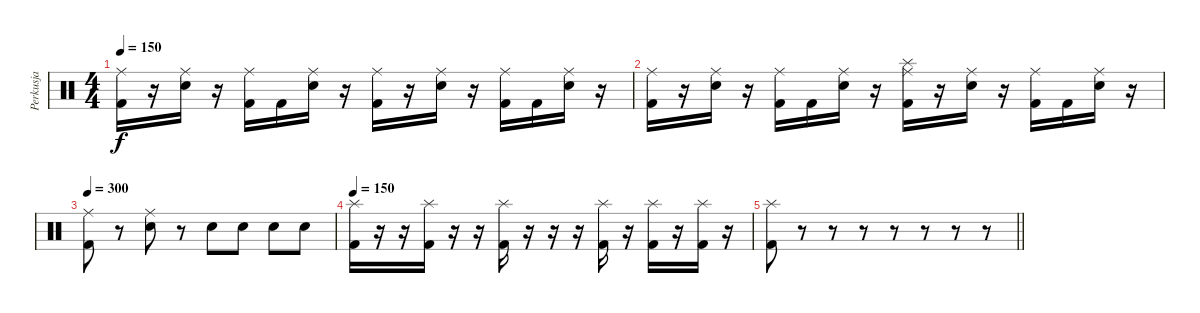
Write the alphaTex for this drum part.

\track ("Perkusja" "Perkusja") {instrument percussion}
\staff {score}
\articulation defaults
\ts (4 4)
\tempo 150
\clef neutral
\ks c
("Ride (middle)" "Kick (hit) 2").16{dy f} r.16 ("Ride (middle)" "Electric Snare (hit)").16 r.16 ("Ride (middle)" "Kick (hit) 2").16 "Kick (hit) 2".16 ("Ride (middle)" "Electric Snare (hit)").16 r.16 ("Ride (middle)" "Kick (hit) 2").16 r.16 ("Ride (middle)" "Electric Snare (hit)").16 r.16 ("Ride (middle)" "Kick (hit) 2").16 "Kick (hit) 2".16 ("Ride (middle)" "Electric Snare (hit)").16 r.16 |
("Ride (middle)" "Kick (hit) 2").16 r.16 ("Ride (middle)" "Electric Snare (hit)").16 r.16 ("Ride (middle)" "Kick (hit) 2").16 "Kick (hit) 2".16 ("Ride (middle)" "Electric Snare (hit)").16 r.16 ("Splash (hit)" "Ride (middle)" "Kick (hit) 2").16 r.16 ("Ride (middle)" "Electric Snare (hit)").16 r.16 ("Ride (middle)" "Kick (hit) 2").16 "Kick (hit) 2".16 ("Ride (middle)" "Electric Snare (hit)").16 r.16 |
\tempo 300
("Ride (middle)" "Kick (hit) 2").8 r.8 ("Ride (middle)" "Electric Snare (hit)").8 r.8 "Electric Snare (hit)".8 "Electric Snare (hit)".8 "Electric Snare (hit)".8 "Electric Snare (hit)".8 |
\tempo 150
("Splash (hit)" "Kick (hit) 2").16 r.16 r.16 ("Splash (hit)" "Kick (hit) 2").16 r.16 r.16 ("Splash (hit)" "Kick (hit) 2").16 r.16 r.16 r.16 ("Splash (hit)" "Kick (hit) 2").16 r.16 ("Splash (hit)" "Kick (hit) 2").16 r.16 ("Splash (hit)" "Kick (hit) 2").16 r.16 |
\barLineRight lightlight
("Splash (hit)" "Kick (hit) 2").8 r.8 r.8 r.8 r.8 r.8 r.8 r.8
